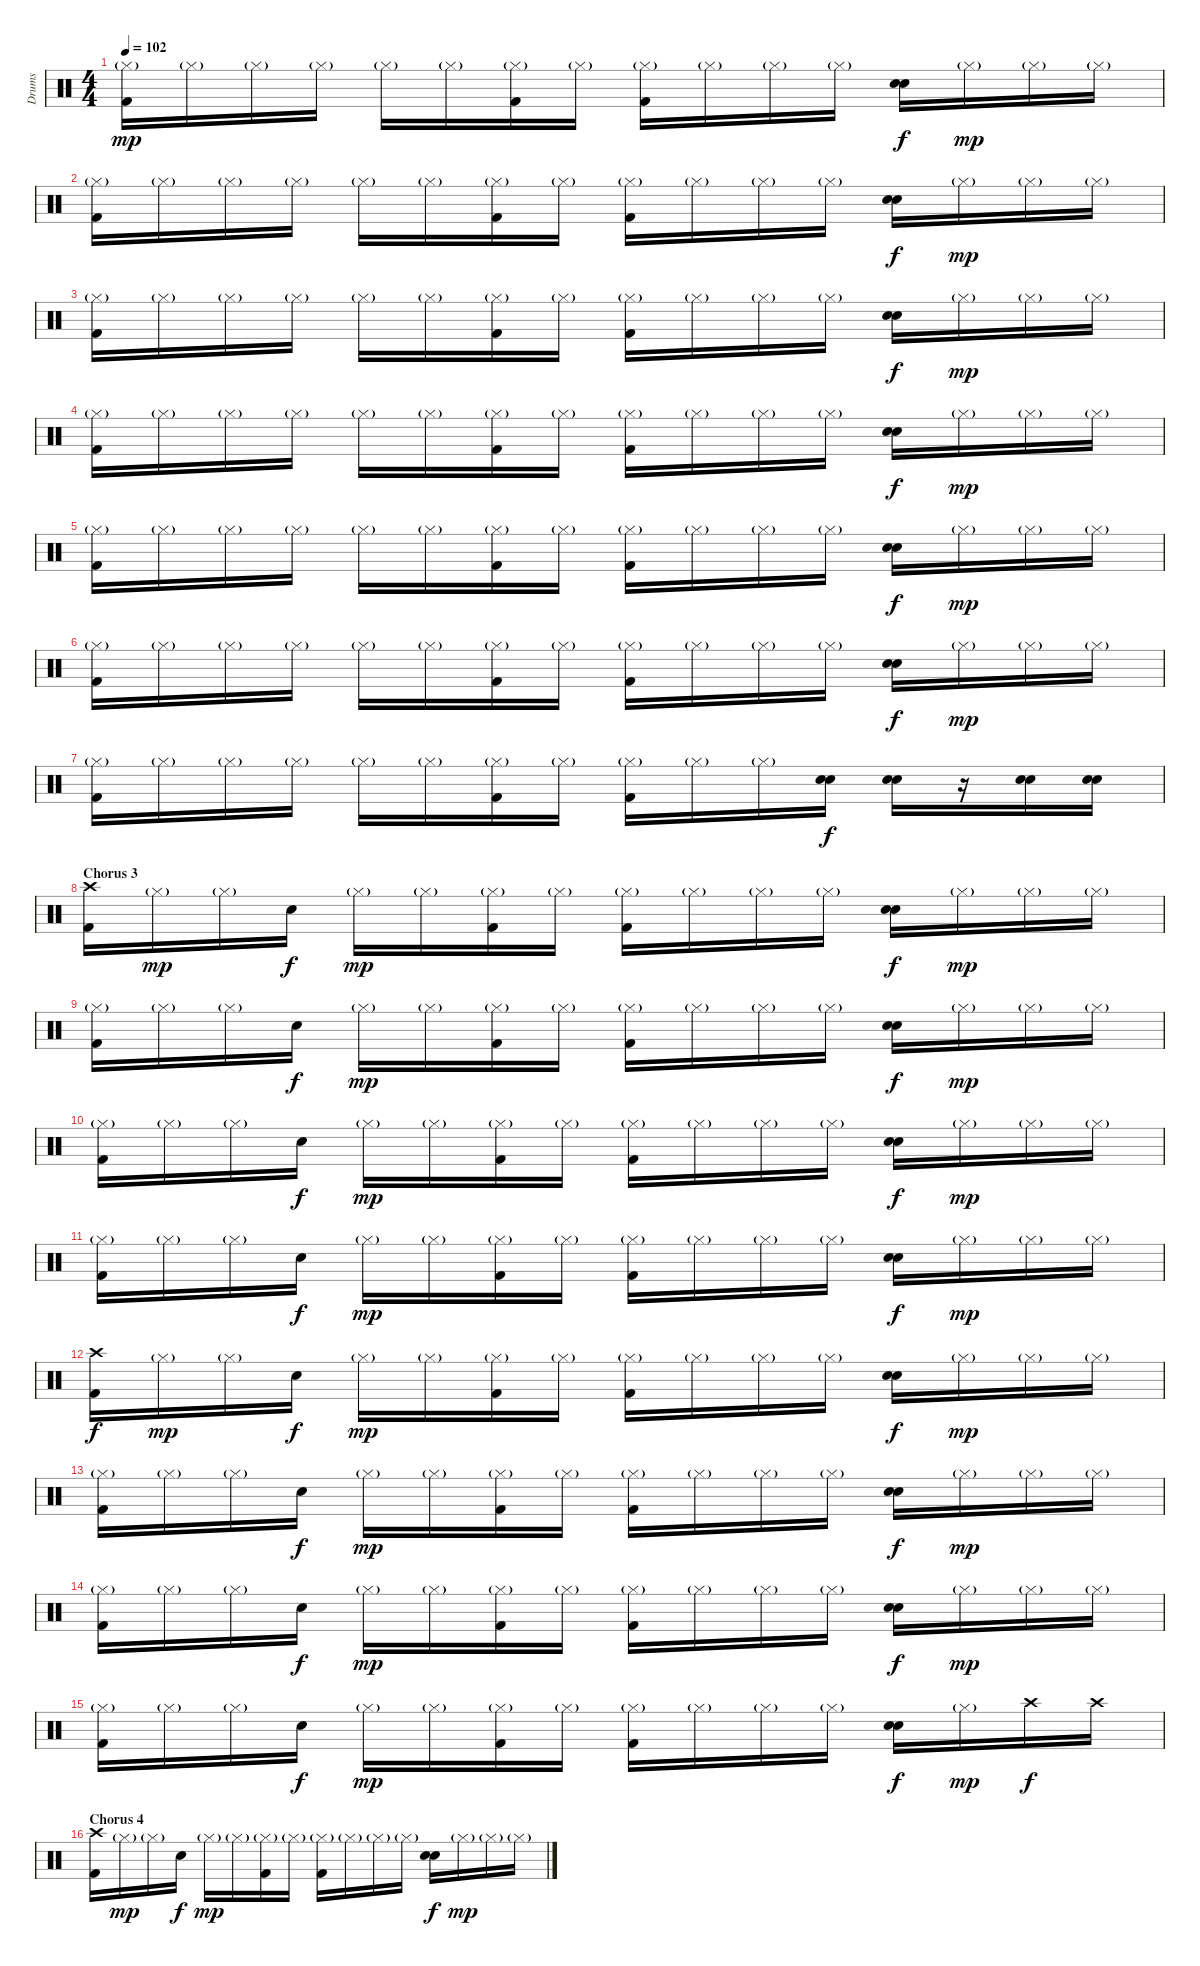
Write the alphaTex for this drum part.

\track ("Drums" "Drums") {instrument percussion}
\staff {score}
\articulation defaults
\ts (4 4)
\tempo 102
\clef neutral
\ks c
("Hi-Hat (closed)"{g} "Kick (hit) 2").16{dy mp} "Hi-Hat (closed)"{g}.16 "Hi-Hat (closed)"{g}.16 "Hi-Hat (closed)"{g}.16 "Hi-Hat (closed)"{g}.16 "Hi-Hat (closed)"{g}.16 ("Hi-Hat (closed)"{g} "Kick (hit) 2").16 "Hi-Hat (closed)"{g}.16 ("Hi-Hat (closed)"{g} "Kick (hit) 2").16 "Hi-Hat (closed)"{g}.16 "Hi-Hat (closed)"{g}.16 "Hi-Hat (closed)"{g}.16 ("Snare (hit) 2" "Snare (hit) 2").16{dy f} "Hi-Hat (closed)"{g}.16{dy mp} "Hi-Hat (closed)"{g}.16 "Hi-Hat (closed)"{g}.16 |
("Hi-Hat (closed)"{g} "Kick (hit) 2").16 "Hi-Hat (closed)"{g}.16 "Hi-Hat (closed)"{g}.16 "Hi-Hat (closed)"{g}.16 "Hi-Hat (closed)"{g}.16 "Hi-Hat (closed)"{g}.16 ("Hi-Hat (closed)"{g} "Kick (hit) 2").16 "Hi-Hat (closed)"{g}.16 ("Hi-Hat (closed)"{g} "Kick (hit) 2").16 "Hi-Hat (closed)"{g}.16 "Hi-Hat (closed)"{g}.16 "Hi-Hat (closed)"{g}.16 ("Snare (hit) 2" "Snare (hit) 2").16{dy f} "Hi-Hat (closed)"{g}.16{dy mp} "Hi-Hat (closed)"{g}.16 "Hi-Hat (closed)"{g}.16 |
("Hi-Hat (closed)"{g} "Kick (hit) 2").16 "Hi-Hat (closed)"{g}.16 "Hi-Hat (closed)"{g}.16 "Hi-Hat (closed)"{g}.16 "Hi-Hat (closed)"{g}.16 "Hi-Hat (closed)"{g}.16 ("Hi-Hat (closed)"{g} "Kick (hit) 2").16 "Hi-Hat (closed)"{g}.16 ("Hi-Hat (closed)"{g} "Kick (hit) 2").16 "Hi-Hat (closed)"{g}.16 "Hi-Hat (closed)"{g}.16 "Hi-Hat (closed)"{g}.16 ("Snare (hit) 2" "Snare (hit) 2").16{dy f} "Hi-Hat (closed)"{g}.16{dy mp} "Hi-Hat (closed)"{g}.16 "Hi-Hat (closed)"{g}.16 |
("Hi-Hat (closed)"{g} "Kick (hit) 2").16 "Hi-Hat (closed)"{g}.16 "Hi-Hat (closed)"{g}.16 "Hi-Hat (closed)"{g}.16 "Hi-Hat (closed)"{g}.16 "Hi-Hat (closed)"{g}.16 ("Hi-Hat (closed)"{g} "Kick (hit) 2").16 "Hi-Hat (closed)"{g}.16 ("Hi-Hat (closed)"{g} "Kick (hit) 2").16 "Hi-Hat (closed)"{g}.16 "Hi-Hat (closed)"{g}.16 "Hi-Hat (closed)"{g}.16 ("Snare (hit) 2" "Snare (hit) 2").16{dy f} "Hi-Hat (closed)"{g}.16{dy mp} "Hi-Hat (closed)"{g}.16 "Hi-Hat (closed)"{g}.16 |
("Hi-Hat (closed)"{g} "Kick (hit) 2").16 "Hi-Hat (closed)"{g}.16 "Hi-Hat (closed)"{g}.16 "Hi-Hat (closed)"{g}.16 "Hi-Hat (closed)"{g}.16 "Hi-Hat (closed)"{g}.16 ("Hi-Hat (closed)"{g} "Kick (hit) 2").16 "Hi-Hat (closed)"{g}.16 ("Hi-Hat (closed)"{g} "Kick (hit) 2").16 "Hi-Hat (closed)"{g}.16 "Hi-Hat (closed)"{g}.16 "Hi-Hat (closed)"{g}.16 ("Snare (hit) 2" "Snare (hit) 2").16{dy f} "Hi-Hat (closed)"{g}.16{dy mp} "Hi-Hat (closed)"{g}.16 "Hi-Hat (closed)"{g}.16 |
("Hi-Hat (closed)"{g} "Kick (hit) 2").16 "Hi-Hat (closed)"{g}.16 "Hi-Hat (closed)"{g}.16 "Hi-Hat (closed)"{g}.16 "Hi-Hat (closed)"{g}.16 "Hi-Hat (closed)"{g}.16 ("Hi-Hat (closed)"{g} "Kick (hit) 2").16 "Hi-Hat (closed)"{g}.16 ("Hi-Hat (closed)"{g} "Kick (hit) 2").16 "Hi-Hat (closed)"{g}.16 "Hi-Hat (closed)"{g}.16 "Hi-Hat (closed)"{g}.16 ("Snare (hit) 2" "Snare (hit) 2").16{dy f} "Hi-Hat (closed)"{g}.16{dy mp} "Hi-Hat (closed)"{g}.16 "Hi-Hat (closed)"{g}.16 |
("Hi-Hat (closed)"{g} "Kick (hit) 2").16 "Hi-Hat (closed)"{g}.16 "Hi-Hat (closed)"{g}.16 "Hi-Hat (closed)"{g}.16 "Hi-Hat (closed)"{g}.16 "Hi-Hat (closed)"{g}.16 ("Hi-Hat (closed)"{g} "Kick (hit) 2").16 "Hi-Hat (closed)"{g}.16 ("Hi-Hat (closed)"{g} "Kick (hit) 2").16 "Hi-Hat (closed)"{g}.16 "Hi-Hat (closed)"{g}.16 ("Snare (hit) 2" "Snare (hit) 2").16{dy f} ("Snare (hit) 2" "Snare (hit) 2").16 r.16 ("Snare (hit) 2" "Snare (hit) 2").16 ("Snare (hit) 2" "Snare (hit) 2").16 |
\section ("" "Chorus 3")
("Crash high (hit)" "Kick (hit) 2").16 "Hi-Hat (closed)"{g}.16{dy mp} "Hi-Hat (closed)"{g}.16 "Snare (hit) 2".16{dy f} "Hi-Hat (closed)"{g}.16{dy mp} "Hi-Hat (closed)"{g}.16 ("Hi-Hat (closed)"{g} "Kick (hit) 2").16 "Hi-Hat (closed)"{g}.16 ("Hi-Hat (closed)"{g} "Kick (hit) 2").16 "Hi-Hat (closed)"{g}.16 "Hi-Hat (closed)"{g}.16 "Hi-Hat (closed)"{g}.16 ("Snare (hit) 2" "Snare (hit) 2").16{dy f} "Hi-Hat (closed)"{g}.16{dy mp} "Hi-Hat (closed)"{g}.16 "Hi-Hat (closed)"{g}.16 |
("Hi-Hat (closed)"{g} "Kick (hit) 2").16 "Hi-Hat (closed)"{g}.16 "Hi-Hat (closed)"{g}.16 "Snare (hit) 2".16{dy f} "Hi-Hat (closed)"{g}.16{dy mp} "Hi-Hat (closed)"{g}.16 ("Hi-Hat (closed)"{g} "Kick (hit) 2").16 "Hi-Hat (closed)"{g}.16 ("Hi-Hat (closed)"{g} "Kick (hit) 2").16 "Hi-Hat (closed)"{g}.16 "Hi-Hat (closed)"{g}.16 "Hi-Hat (closed)"{g}.16 ("Snare (hit) 2" "Snare (hit) 2").16{dy f} "Hi-Hat (closed)"{g}.16{dy mp} "Hi-Hat (closed)"{g}.16 "Hi-Hat (closed)"{g}.16 |
("Hi-Hat (closed)"{g} "Kick (hit) 2").16 "Hi-Hat (closed)"{g}.16 "Hi-Hat (closed)"{g}.16 "Snare (hit) 2".16{dy f} "Hi-Hat (closed)"{g}.16{dy mp} "Hi-Hat (closed)"{g}.16 ("Hi-Hat (closed)"{g} "Kick (hit) 2").16 "Hi-Hat (closed)"{g}.16 ("Hi-Hat (closed)"{g} "Kick (hit) 2").16 "Hi-Hat (closed)"{g}.16 "Hi-Hat (closed)"{g}.16 "Hi-Hat (closed)"{g}.16 ("Snare (hit) 2" "Snare (hit) 2").16{dy f} "Hi-Hat (closed)"{g}.16{dy mp} "Hi-Hat (closed)"{g}.16 "Hi-Hat (closed)"{g}.16 |
("Hi-Hat (closed)"{g} "Kick (hit) 2").16 "Hi-Hat (closed)"{g}.16 "Hi-Hat (closed)"{g}.16 "Snare (hit) 2".16{dy f} "Hi-Hat (closed)"{g}.16{dy mp} "Hi-Hat (closed)"{g}.16 ("Hi-Hat (closed)"{g} "Kick (hit) 2").16 "Hi-Hat (closed)"{g}.16 ("Hi-Hat (closed)"{g} "Kick (hit) 2").16 "Hi-Hat (closed)"{g}.16 "Hi-Hat (closed)"{g}.16 "Hi-Hat (closed)"{g}.16 ("Snare (hit) 2" "Snare (hit) 2").16{dy f} "Hi-Hat (closed)"{g}.16{dy mp} "Hi-Hat (closed)"{g}.16 "Hi-Hat (closed)"{g}.16 |
("Crash high (hit)" "Kick (hit) 2").16{dy f} "Hi-Hat (closed)"{g}.16{dy mp} "Hi-Hat (closed)"{g}.16 "Snare (hit) 2".16{dy f} "Hi-Hat (closed)"{g}.16{dy mp} "Hi-Hat (closed)"{g}.16 ("Hi-Hat (closed)"{g} "Kick (hit) 2").16 "Hi-Hat (closed)"{g}.16 ("Hi-Hat (closed)"{g} "Kick (hit) 2").16 "Hi-Hat (closed)"{g}.16 "Hi-Hat (closed)"{g}.16 "Hi-Hat (closed)"{g}.16 ("Snare (hit) 2" "Snare (hit) 2").16{dy f} "Hi-Hat (closed)"{g}.16{dy mp} "Hi-Hat (closed)"{g}.16 "Hi-Hat (closed)"{g}.16 |
("Hi-Hat (closed)"{g} "Kick (hit) 2").16 "Hi-Hat (closed)"{g}.16 "Hi-Hat (closed)"{g}.16 "Snare (hit) 2".16{dy f} "Hi-Hat (closed)"{g}.16{dy mp} "Hi-Hat (closed)"{g}.16 ("Hi-Hat (closed)"{g} "Kick (hit) 2").16 "Hi-Hat (closed)"{g}.16 ("Hi-Hat (closed)"{g} "Kick (hit) 2").16 "Hi-Hat (closed)"{g}.16 "Hi-Hat (closed)"{g}.16 "Hi-Hat (closed)"{g}.16 ("Snare (hit) 2" "Snare (hit) 2").16{dy f} "Hi-Hat (closed)"{g}.16{dy mp} "Hi-Hat (closed)"{g}.16 "Hi-Hat (closed)"{g}.16 |
("Hi-Hat (closed)"{g} "Kick (hit) 2").16 "Hi-Hat (closed)"{g}.16 "Hi-Hat (closed)"{g}.16 "Snare (hit) 2".16{dy f} "Hi-Hat (closed)"{g}.16{dy mp} "Hi-Hat (closed)"{g}.16 ("Hi-Hat (closed)"{g} "Kick (hit) 2").16 "Hi-Hat (closed)"{g}.16 ("Hi-Hat (closed)"{g} "Kick (hit) 2").16 "Hi-Hat (closed)"{g}.16 "Hi-Hat (closed)"{g}.16 "Hi-Hat (closed)"{g}.16 ("Snare (hit) 2" "Snare (hit) 2").16{dy f} "Hi-Hat (closed)"{g}.16{dy mp} "Hi-Hat (closed)"{g}.16 "Hi-Hat (closed)"{g}.16 |
("Hi-Hat (closed)"{g} "Kick (hit) 2").16 "Hi-Hat (closed)"{g}.16 "Hi-Hat (closed)"{g}.16 "Snare (hit) 2".16{dy f} "Hi-Hat (closed)"{g}.16{dy mp} "Hi-Hat (closed)"{g}.16 ("Hi-Hat (closed)"{g} "Kick (hit) 2").16 "Hi-Hat (closed)"{g}.16 ("Hi-Hat (closed)"{g} "Kick (hit) 2").16 "Hi-Hat (closed)"{g}.16 "Hi-Hat (closed)"{g}.16 "Hi-Hat (closed)"{g}.16 ("Snare (hit) 2" "Snare (hit) 2").16{dy f} "Hi-Hat (closed)"{g}.16{dy mp} "Crash high (hit)".16{dy f} "Crash high (hit)".16 |
\section ("" "Chorus 4")
("Crash high (hit)" "Kick (hit) 2").16 "Hi-Hat (closed)"{g}.16{dy mp} "Hi-Hat (closed)"{g}.16 "Snare (hit) 2".16{dy f} "Hi-Hat (closed)"{g}.16{dy mp} "Hi-Hat (closed)"{g}.16 ("Hi-Hat (closed)"{g} "Kick (hit) 2").16 "Hi-Hat (closed)"{g}.16 ("Hi-Hat (closed)"{g} "Kick (hit) 2").16 "Hi-Hat (closed)"{g}.16 "Hi-Hat (closed)"{g}.16 "Hi-Hat (closed)"{g}.16 ("Snare (hit) 2" "Snare (hit) 2").16{dy f} "Hi-Hat (closed)"{g}.16{dy mp} "Hi-Hat (closed)"{g}.16 "Hi-Hat (closed)"{g}.16
